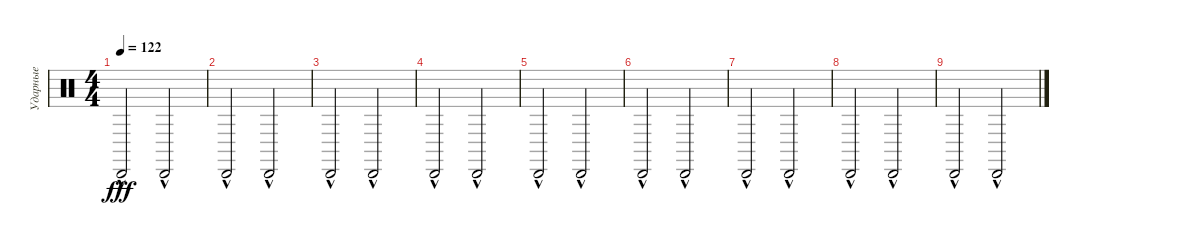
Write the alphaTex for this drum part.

\track ("Ударные" "Ударные") {instrument percussion}
\staff {score}
\articulation defaults
\ts (4 4)
\tempo 122
\clef neutral
\ks c "Cabasa (hit)"{hac}.2{dy fff} "Cabasa (hit)"{hac}.2
|
"Cabasa (hit)"{hac}.2 "Cabasa (hit)"{hac}.2 |
"Cabasa (hit)"{hac}.2 "Cabasa (hit)"{hac}.2 |
"Cabasa (hit)"{hac}.2 "Cabasa (hit)"{hac}.2 |
"Cabasa (hit)"{hac}.2 "Cabasa (hit)"{hac}.2 |
"Cabasa (hit)"{hac}.2 "Cabasa (hit)"{hac}.2 |
"Cabasa (hit)"{hac}.2 "Cabasa (hit)"{hac}.2 |
"Cabasa (hit)"{hac}.2 "Cabasa (hit)"{hac}.2 |
"Cabasa (hit)"{hac}.2 "Cabasa (hit)"{hac}.2
